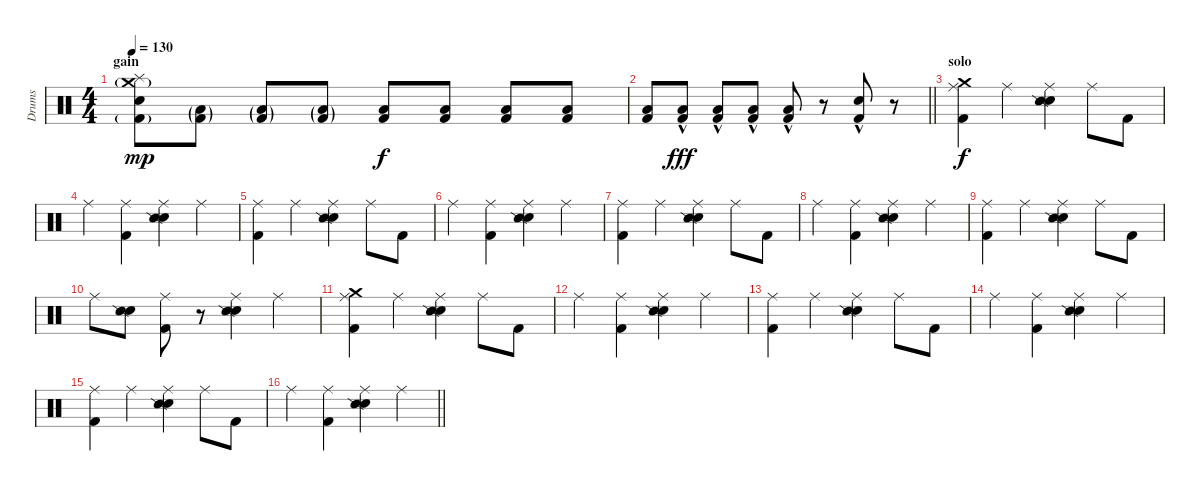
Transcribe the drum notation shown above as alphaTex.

\track ("Drums" "Drums") {instrument percussion}
\staff {score}
\articulation defaults
\ts (4 4)
\section ("" "gain")
\tempo 130
\clef neutral
\ks c
("Splash (hit)" "Kick (hit) 2"{g} "Crash medium (hit)"{g} "Electric Snare (hit)").8{dy mp volume 16} ("Kick (hit) 2"{g} "Low Floor Tom (hit)"{g}).8 ("Kick (hit) 2"{g} "Low Floor Tom (hit)"{g}).8 ("Kick (hit) 2"{g} "Low Floor Tom (hit)"{g}).8 ("Kick (hit) 2" "Low Floor Tom (hit)").8{dy f} ("Kick (hit) 2" "Low Floor Tom (hit)").8 ("Kick (hit) 2" "Low Floor Tom (hit)").8 ("Kick (hit) 2" "Low Floor Tom (hit)").8 |
\barLineRight lightlight
("Kick (hit) 2" "Low Floor Tom (hit)").8 ("Kick (hit) 2"{hac} "Low Floor Tom (hit)"{hac}).8{dy fff} ("Kick (hit) 2"{hac} "Low Floor Tom (hit)"{hac}).8 ("Kick (hit) 2"{hac} "Low Floor Tom (hit)"{hac}).8 ("Kick (hit) 2"{hac} "Low Floor Tom (hit)"{hac}).8 r.8 ("Kick (hit) 2"{hac} "Electric Snare (hit)"{hac}).8 r.8 |
\section ("" "solo")
("Crash medium (hit)" "Ride (middle)" "Kick (hit) 2").4{dy f} "Ride (middle)".4 ("Ride (middle)" "Electric Snare (hit)" "Snare (side stick) 2").4 "Ride (middle)".8 "Kick (hit) 2".8 |
"Ride (middle)".4 ("Kick (hit) 2" "Ride (middle)").4 ("Ride (middle)" "Electric Snare (hit)" "Snare (side stick) 2").4 "Ride (middle)".4 |
("Ride (middle)" "Kick (hit) 2").4 "Ride (middle)".4 ("Ride (middle)" "Electric Snare (hit)" "Snare (side stick) 2").4 "Ride (middle)".8 "Kick (hit) 2".8 |
"Ride (middle)".4 ("Kick (hit) 2" "Ride (middle)").4 ("Ride (middle)" "Electric Snare (hit)" "Snare (side stick) 2").4 "Ride (middle)".4 |
("Ride (middle)" "Kick (hit) 2").4 "Ride (middle)".4 ("Ride (middle)" "Electric Snare (hit)" "Snare (side stick) 2").4 "Ride (middle)".8 "Kick (hit) 2".8 |
"Ride (middle)".4 ("Kick (hit) 2" "Ride (middle)").4 ("Ride (middle)" "Electric Snare (hit)" "Snare (side stick) 2").4 "Ride (middle)".4 |
("Ride (middle)" "Kick (hit) 2").4 "Ride (middle)".4 ("Ride (middle)" "Electric Snare (hit)" "Snare (side stick) 2").4 "Ride (middle)".8 "Kick (hit) 2".8 |
"Ride (middle)".8 ("Electric Snare (hit)" "Snare (side stick) 2").8 ("Kick (hit) 2" "Ride (middle)").8 r.8 ("Ride (middle)" "Electric Snare (hit)" "Snare (side stick) 2").4 "Ride (middle)".4 |
("Crash medium (hit)" "Ride (middle)" "Kick (hit) 2").4 "Ride (middle)".4 ("Ride (middle)" "Electric Snare (hit)" "Snare (side stick) 2").4 "Ride (middle)".8 "Kick (hit) 2".8 |
"Ride (middle)".4 ("Kick (hit) 2" "Ride (middle)").4 ("Ride (middle)" "Electric Snare (hit)" "Snare (side stick) 2").4 "Ride (middle)".4 |
("Ride (middle)" "Kick (hit) 2").4 "Ride (middle)".4 ("Ride (middle)" "Electric Snare (hit)" "Snare (side stick) 2").4 "Ride (middle)".8 "Kick (hit) 2".8 |
"Ride (middle)".4 ("Kick (hit) 2" "Ride (middle)").4 ("Ride (middle)" "Electric Snare (hit)" "Snare (side stick) 2").4 "Ride (middle)".4 |
("Ride (middle)" "Kick (hit) 2").4 "Ride (middle)".4 ("Ride (middle)" "Electric Snare (hit)" "Snare (side stick) 2").4 "Ride (middle)".8 "Kick (hit) 2".8 |
\barLineRight lightlight "Ride (middle)".4
("Kick (hit) 2" "Ride (middle)").4 ("Ride (middle)" "Electric Snare (hit)" "Snare (side stick) 2").4 "Ride (middle)".4
